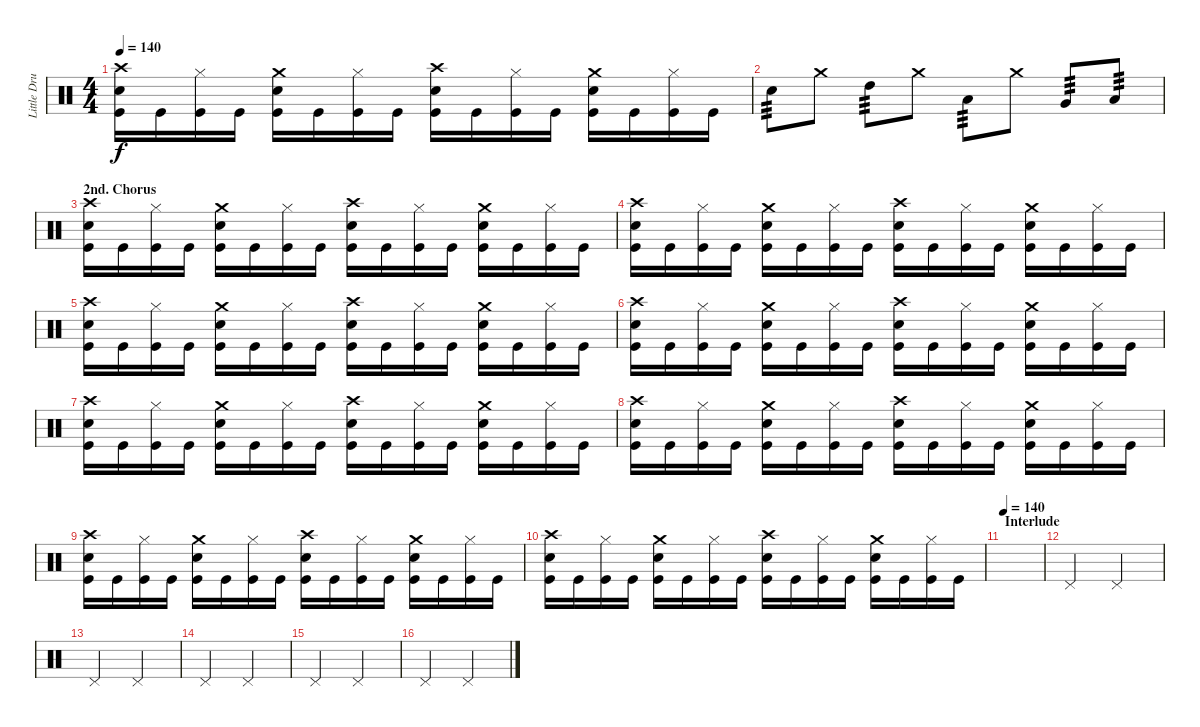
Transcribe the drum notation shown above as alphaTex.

\track ("Little Drummer Boy" "Little Dru") {instrument percussion}
\staff {score}
\articulation defaults
\ts (4 4)
\tempo 140
\clef neutral
\ks c
("Crash high (hit)" "Snare (hit) 2" "Kick (hit)").16{dy f} "Kick (hit)".16 ("Hi-Hat (closed)" "Kick (hit)").16 "Kick (hit)".16 ("Crash medium (hit)" "Snare (hit) 2" "Kick (hit)").16 "Kick (hit)".16 ("Hi-Hat (closed)" "Kick (hit)").16 "Kick (hit)".16 ("Crash high (hit)" "Snare (hit) 2" "Kick (hit)").16 "Kick (hit)".16 ("Hi-Hat (closed)" "Kick (hit)").16 "Kick (hit)".16 ("Crash medium (hit)" "Snare (hit) 2" "Kick (hit)").16 "Kick (hit)".16 ("Hi-Hat (closed)" "Kick (hit)").16 "Kick (hit)".16 |
"Snare (hit) 2".8{tp 3} "Crash medium (hit)".8 "High Tom (hit)".8{tp 3} "Crash medium (hit)".8 "Low Tom (hit)".8{tp 3} "Crash medium (hit)".8 "Very Low Tom (hit)".8{tp 3} "Low Floor Tom (hit)".8{tp 3} |
\section ("" "2nd. Chorus")
("Crash high (hit)" "Snare (hit) 2" "Kick (hit)").16 "Kick (hit)".16 ("Hi-Hat (closed)" "Kick (hit)").16 "Kick (hit)".16 ("Crash medium (hit)" "Snare (hit) 2" "Kick (hit)").16 "Kick (hit)".16 ("Hi-Hat (closed)" "Kick (hit)").16 "Kick (hit)".16 ("Crash high (hit)" "Snare (hit) 2" "Kick (hit)").16 "Kick (hit)".16 ("Hi-Hat (closed)" "Kick (hit)").16 "Kick (hit)".16 ("Crash medium (hit)" "Snare (hit) 2" "Kick (hit)").16 "Kick (hit)".16 ("Hi-Hat (closed)" "Kick (hit)").16 "Kick (hit)".16 |
("Crash high (hit)" "Snare (hit) 2" "Kick (hit)").16 "Kick (hit)".16 ("Hi-Hat (closed)" "Kick (hit)").16 "Kick (hit)".16 ("Crash medium (hit)" "Snare (hit) 2" "Kick (hit)").16 "Kick (hit)".16 ("Hi-Hat (closed)" "Kick (hit)").16 "Kick (hit)".16 ("Crash high (hit)" "Snare (hit) 2" "Kick (hit)").16 "Kick (hit)".16 ("Hi-Hat (closed)" "Kick (hit)").16 "Kick (hit)".16 ("Crash medium (hit)" "Snare (hit) 2" "Kick (hit)").16 "Kick (hit)".16 ("Hi-Hat (closed)" "Kick (hit)").16 "Kick (hit)".16 |
("Crash high (hit)" "Snare (hit) 2" "Kick (hit)").16 "Kick (hit)".16 ("Hi-Hat (closed)" "Kick (hit)").16 "Kick (hit)".16 ("Crash medium (hit)" "Snare (hit) 2" "Kick (hit)").16 "Kick (hit)".16 ("Hi-Hat (closed)" "Kick (hit)").16 "Kick (hit)".16 ("Crash high (hit)" "Snare (hit) 2" "Kick (hit)").16 "Kick (hit)".16 ("Hi-Hat (closed)" "Kick (hit)").16 "Kick (hit)".16 ("Crash medium (hit)" "Snare (hit) 2" "Kick (hit)").16 "Kick (hit)".16 ("Hi-Hat (closed)" "Kick (hit)").16 "Kick (hit)".16 |
("Crash high (hit)" "Snare (hit) 2" "Kick (hit)").16 "Kick (hit)".16 ("Hi-Hat (closed)" "Kick (hit)").16 "Kick (hit)".16 ("Crash medium (hit)" "Snare (hit) 2" "Kick (hit)").16 "Kick (hit)".16 ("Hi-Hat (closed)" "Kick (hit)").16 "Kick (hit)".16 ("Crash high (hit)" "Snare (hit) 2" "Kick (hit)").16 "Kick (hit)".16 ("Hi-Hat (closed)" "Kick (hit)").16 "Kick (hit)".16 ("Crash medium (hit)" "Snare (hit) 2" "Kick (hit)").16 "Kick (hit)".16 ("Hi-Hat (closed)" "Kick (hit)").16 "Kick (hit)".16 |
("Crash high (hit)" "Snare (hit) 2" "Kick (hit)").16 "Kick (hit)".16 ("Hi-Hat (closed)" "Kick (hit)").16 "Kick (hit)".16 ("Crash medium (hit)" "Snare (hit) 2" "Kick (hit)").16 "Kick (hit)".16 ("Hi-Hat (closed)" "Kick (hit)").16 "Kick (hit)".16 ("Crash high (hit)" "Snare (hit) 2" "Kick (hit)").16 "Kick (hit)".16 ("Hi-Hat (closed)" "Kick (hit)").16 "Kick (hit)".16 ("Crash medium (hit)" "Snare (hit) 2" "Kick (hit)").16 "Kick (hit)".16 ("Hi-Hat (closed)" "Kick (hit)").16 "Kick (hit)".16 |
("Crash high (hit)" "Snare (hit) 2" "Kick (hit)").16 "Kick (hit)".16 ("Hi-Hat (closed)" "Kick (hit)").16 "Kick (hit)".16 ("Crash medium (hit)" "Snare (hit) 2" "Kick (hit)").16 "Kick (hit)".16 ("Hi-Hat (closed)" "Kick (hit)").16 "Kick (hit)".16 ("Crash high (hit)" "Snare (hit) 2" "Kick (hit)").16 "Kick (hit)".16 ("Hi-Hat (closed)" "Kick (hit)").16 "Kick (hit)".16 ("Crash medium (hit)" "Snare (hit) 2" "Kick (hit)").16 "Kick (hit)".16 ("Hi-Hat (closed)" "Kick (hit)").16 "Kick (hit)".16 |
("Crash high (hit)" "Snare (hit) 2" "Kick (hit)").16 "Kick (hit)".16 ("Hi-Hat (closed)" "Kick (hit)").16 "Kick (hit)".16 ("Crash medium (hit)" "Snare (hit) 2" "Kick (hit)").16 "Kick (hit)".16 ("Hi-Hat (closed)" "Kick (hit)").16 "Kick (hit)".16 ("Crash high (hit)" "Snare (hit) 2" "Kick (hit)").16 "Kick (hit)".16 ("Hi-Hat (closed)" "Kick (hit)").16 "Kick (hit)".16 ("Crash medium (hit)" "Snare (hit) 2" "Kick (hit)").16 "Kick (hit)".16 ("Hi-Hat (closed)" "Kick (hit)").16 "Kick (hit)".16 |
("Crash high (hit)" "Snare (hit) 2" "Kick (hit)").16 "Kick (hit)".16 ("Hi-Hat (closed)" "Kick (hit)").16 "Kick (hit)".16 ("Crash medium (hit)" "Snare (hit) 2" "Kick (hit)").16 "Kick (hit)".16 ("Hi-Hat (closed)" "Kick (hit)").16 "Kick (hit)".16 ("Crash high (hit)" "Snare (hit) 2" "Kick (hit)").16 "Kick (hit)".16 ("Hi-Hat (closed)" "Kick (hit)").16 "Kick (hit)".16 ("Crash medium (hit)" "Snare (hit) 2" "Kick (hit)").16 "Kick (hit)".16 ("Hi-Hat (closed)" "Kick (hit)").16 "Kick (hit)".16 |
\section ("" "Interlude")
\tempo 140
|
"Pedal Hi-Hat (hit)".2 "Pedal Hi-Hat (hit)".2 |
"Pedal Hi-Hat (hit)".2 "Pedal Hi-Hat (hit)".2 |
"Pedal Hi-Hat (hit)".2 "Pedal Hi-Hat (hit)".2 |
"Pedal Hi-Hat (hit)".2 "Pedal Hi-Hat (hit)".2 |
"Pedal Hi-Hat (hit)".2 "Pedal Hi-Hat (hit)".2
